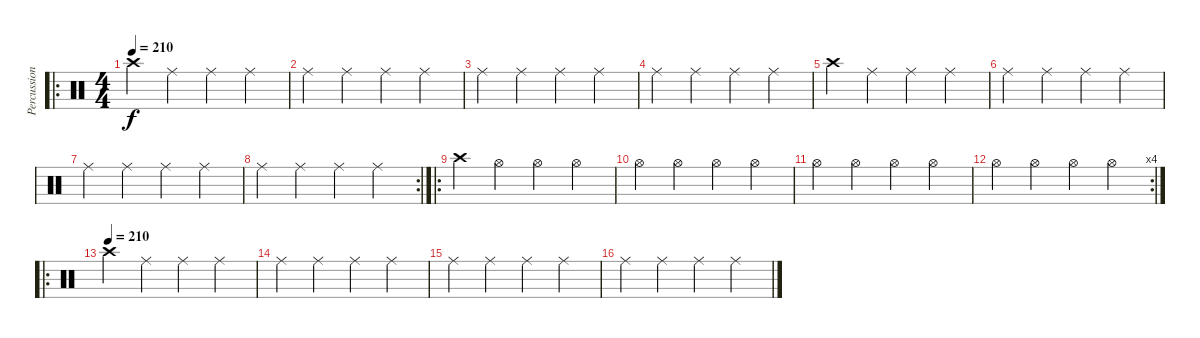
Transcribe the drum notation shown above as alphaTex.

\track ("Percussion" "Percussion") {instrument percussion}
\staff {score}
\articulation defaults
\ro
\ts (4 4)
\tempo 210
\clef neutral
\ks c "Crash high (hit)".4{dy f} "Ride (middle)".4 "Ride (middle)".4 "Ride (middle)".4
|
"Ride (middle)".4 "Ride (middle)".4 "Ride (middle)".4 "Ride (middle)".4 |
"Ride (middle)".4 "Ride (middle)".4 "Ride (middle)".4 "Ride (middle)".4 |
"Ride (middle)".4 "Ride (middle)".4 "Ride (middle)".4 "Ride (middle)".4 |
"Crash high (hit)".4 "Ride (middle)".4 "Ride (middle)".4 "Ride (middle)".4 |
"Ride (middle)".4 "Ride (middle)".4 "Ride (middle)".4 "Ride (middle)".4 |
"Ride (middle)".4 "Ride (middle)".4 "Ride (middle)".4 "Ride (middle)".4 |
\rc 2 "Ride (middle)".4 "Ride (middle)".4 "Ride (middle)".4 "Ride (middle)".4
|
\ro "Crash high (hit)".4 "Hi-Hat (open)".4 "Hi-Hat (open)".4 "Hi-Hat (open)".4
|
"Hi-Hat (open)".4 "Hi-Hat (open)".4 "Hi-Hat (open)".4 "Hi-Hat (open)".4 |
"Hi-Hat (open)".4 "Hi-Hat (open)".4 "Hi-Hat (open)".4 "Hi-Hat (open)".4 |
\rc 4 "Hi-Hat (open)".4 "Hi-Hat (open)".4 "Hi-Hat (open)".4 "Hi-Hat (open)".4
|
\ro
\tempo (210)
"Crash high (hit)".4 "Ride (middle)".4 "Ride (middle)".4 "Ride (middle)".4 |
"Ride (middle)".4 "Ride (middle)".4 "Ride (middle)".4 "Ride (middle)".4 |
"Ride (middle)".4 "Ride (middle)".4 "Ride (middle)".4 "Ride (middle)".4 |
"Ride (middle)".4 "Ride (middle)".4 "Ride (middle)".4 "Ride (middle)".4
